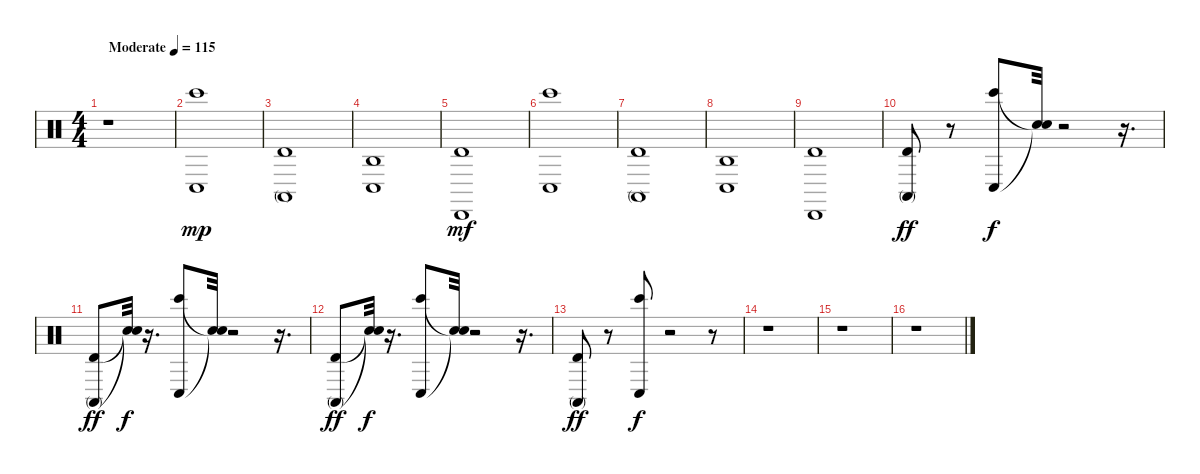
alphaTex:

\track "" {instrument percussion}
\staff {score}
\articulation defaults
\ts (4 4)
\tempo (115 "Moderate")
\clef neutral
\ks c
r.1{dy mp} |
("Bongo High (hit)" "Conga low (hit)").1 |
("Timbale high (hit)" "Conga high (mute)").1 |
("Conga low (hit)" "Agogo high (hit)").1 |
("Timbale high (hit)" "Cabasa (hit)").1{dy mf} |
("Bongo High (hit)" "Conga low (hit)").1 |
("Conga high (mute)" "Timbale high (hit)").1 |
("Conga low (hit)" "Agogo high (hit)").1 |
("Timbale high (hit)" "Cabasa (hit)").1 |
("Timbale high (hit)" "Conga high (mute)").8{dy ff balance 11} r.8 ("Conga low (hit)" "Bongo High (hit)").8{dy f} ("Snare (hit)"{t} "Snare (hit)"{t}).32 r.2 r.16{d} |
("Conga high (mute)" "Timbale high (hit)").8{dy ff} ("Snare (hit)"{t} "Snare (hit)"{t}).32{dy f} r.16{d} ("Conga low (hit)" "Bongo High (hit)").8 ("Snare (hit)"{t} "Snare (hit)"{t}).32 r.2 r.16{d} |
("Conga high (mute)" "Timbale high (hit)").8{dy ff} ("Snare (hit)"{t} "Snare (hit)"{t}).32{dy f} r.16{d} ("Conga low (hit)" "Bongo High (hit)").8 ("Snare (hit)"{t} "Snare (hit)"{t}).32 r.2 r.16{d} |
("Conga high (mute)" "Timbale high (hit)").8{dy ff} r.8 ("Conga low (hit)" "Bongo High (hit)").8{dy f} r.2 r.8 |
r.1 |
r.1 |
r.1
